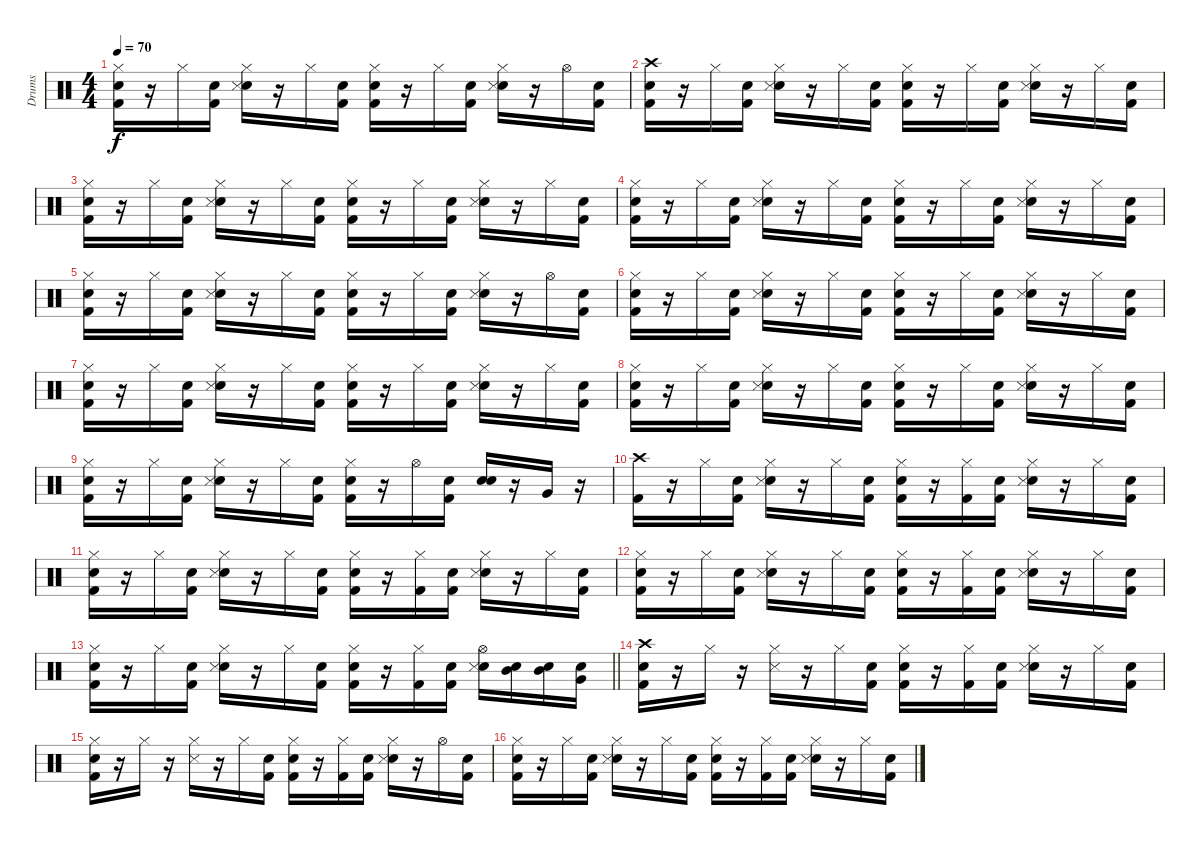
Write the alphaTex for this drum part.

\track ("Drums" "Drums") {instrument percussion}
\staff {score}
\articulation defaults
\ts (4 4)
\tempo 70
\clef neutral
\ks c
("Snare (hit)" "Kick (hit) 2" "Hi-Hat (closed)").16{dy f} r.16 "Hi-Hat (closed)".16 ("Snare (hit)" "Kick (hit) 2").16 ("Snare (hit)" "Snare (side stick) 3" "Hi-Hat (closed)").16 r.16 "Hi-Hat (closed)".16 ("Snare (hit)" "Kick (hit) 2").16 ("Snare (hit)" "Kick (hit) 2" "Hi-Hat (closed)").16 r.16 "Hi-Hat (closed)".16 ("Snare (hit)" "Kick (hit) 2").16 ("Snare (hit)" "Snare (side stick) 3" "Hi-Hat (closed)").16 r.16 "Hi-Hat (open)".16 ("Snare (hit)" "Kick (hit) 2").16 |
("Snare (hit)" "Kick (hit) 2" "Crash high (hit)").16 r.16 "Hi-Hat (closed)".16 ("Snare (hit)" "Kick (hit) 2").16 ("Snare (hit)" "Snare (side stick) 3" "Hi-Hat (closed)").16 r.16 "Hi-Hat (closed)".16 ("Snare (hit)" "Kick (hit) 2").16 ("Snare (hit)" "Kick (hit) 2" "Hi-Hat (closed)").16 r.16 "Hi-Hat (closed)".16 ("Snare (hit)" "Kick (hit) 2").16 ("Snare (hit)" "Snare (side stick) 3" "Hi-Hat (closed)").16 r.16 "Hi-Hat (closed)".16 ("Snare (hit)" "Kick (hit) 2").16 |
("Snare (hit)" "Kick (hit) 2" "Hi-Hat (closed)").16 r.16 "Hi-Hat (closed)".16 ("Snare (hit)" "Kick (hit) 2").16 ("Snare (hit)" "Snare (side stick) 3" "Hi-Hat (closed)").16 r.16 "Hi-Hat (closed)".16 ("Snare (hit)" "Kick (hit) 2").16 ("Snare (hit)" "Kick (hit) 2" "Hi-Hat (closed)").16 r.16 "Hi-Hat (closed)".16 ("Snare (hit)" "Kick (hit) 2").16 ("Snare (hit)" "Snare (side stick) 3" "Hi-Hat (closed)").16 r.16 "Hi-Hat (closed)".16 ("Snare (hit)" "Kick (hit) 2").16 |
("Snare (hit)" "Kick (hit) 2" "Hi-Hat (closed)").16 r.16 "Hi-Hat (closed)".16 ("Snare (hit)" "Kick (hit) 2").16 ("Snare (hit)" "Snare (side stick) 3" "Hi-Hat (closed)").16 r.16 "Hi-Hat (closed)".16 ("Snare (hit)" "Kick (hit) 2").16 ("Snare (hit)" "Kick (hit) 2" "Hi-Hat (closed)").16 r.16 "Hi-Hat (closed)".16 ("Snare (hit)" "Kick (hit) 2").16 ("Snare (hit)" "Snare (side stick) 3" "Hi-Hat (closed)").16 r.16 "Hi-Hat (closed)".16 ("Snare (hit)" "Kick (hit) 2").16 |
("Snare (hit)" "Kick (hit) 2" "Hi-Hat (closed)").16 r.16 "Hi-Hat (closed)".16 ("Snare (hit)" "Kick (hit) 2").16 ("Snare (hit)" "Snare (side stick) 3" "Hi-Hat (closed)").16 r.16 "Hi-Hat (closed)".16 ("Snare (hit)" "Kick (hit) 2").16 ("Snare (hit)" "Kick (hit) 2" "Hi-Hat (closed)").16 r.16 "Hi-Hat (closed)".16 ("Snare (hit)" "Kick (hit) 2").16 ("Snare (hit)" "Snare (side stick) 3" "Hi-Hat (closed)").16 r.16 "Hi-Hat (open)".16 ("Snare (hit)" "Kick (hit) 2").16 |
("Snare (hit)" "Kick (hit) 2" "Hi-Hat (closed)").16 r.16 "Hi-Hat (closed)".16 ("Snare (hit)" "Kick (hit) 2").16 ("Snare (hit)" "Snare (side stick) 3" "Hi-Hat (closed)").16 r.16 "Hi-Hat (closed)".16 ("Snare (hit)" "Kick (hit) 2").16 ("Snare (hit)" "Kick (hit) 2" "Hi-Hat (closed)").16 r.16 "Hi-Hat (closed)".16 ("Snare (hit)" "Kick (hit) 2").16 ("Snare (hit)" "Snare (side stick) 3" "Hi-Hat (closed)").16 r.16 "Hi-Hat (closed)".16 ("Snare (hit)" "Kick (hit) 2").16 |
("Snare (hit)" "Kick (hit) 2" "Hi-Hat (closed)").16 r.16 "Hi-Hat (closed)".16 ("Snare (hit)" "Kick (hit) 2").16 ("Snare (hit)" "Snare (side stick) 3" "Hi-Hat (closed)").16 r.16 "Hi-Hat (closed)".16 ("Snare (hit)" "Kick (hit) 2").16 ("Snare (hit)" "Kick (hit) 2" "Hi-Hat (closed)").16 r.16 "Hi-Hat (closed)".16 ("Snare (hit)" "Kick (hit) 2").16 ("Snare (hit)" "Snare (side stick) 3" "Hi-Hat (closed)").16 r.16 "Hi-Hat (closed)".16 ("Snare (hit)" "Kick (hit) 2").16 |
("Snare (hit)" "Kick (hit) 2" "Hi-Hat (closed)").16 r.16 "Hi-Hat (closed)".16 ("Snare (hit)" "Kick (hit) 2").16 ("Snare (hit)" "Snare (side stick) 3" "Hi-Hat (closed)").16 r.16 "Hi-Hat (closed)".16 ("Snare (hit)" "Kick (hit) 2").16 ("Snare (hit)" "Kick (hit) 2" "Hi-Hat (closed)").16 r.16 "Hi-Hat (closed)".16 ("Snare (hit)" "Kick (hit) 2").16 ("Snare (hit)" "Snare (side stick) 3" "Hi-Hat (closed)").16 r.16 "Hi-Hat (closed)".16 ("Snare (hit)" "Kick (hit) 2").16 |
("Snare (hit)" "Kick (hit) 2" "Hi-Hat (closed)").16 r.16 "Hi-Hat (closed)".16 ("Snare (hit)" "Kick (hit) 2").16 ("Snare (hit)" "Snare (side stick) 3" "Hi-Hat (closed)").16 r.16 "Hi-Hat (closed)".16 ("Snare (hit)" "Kick (hit) 2").16 ("Snare (hit)" "Kick (hit) 2" "Hi-Hat (closed)").16 r.16 "Hi-Hat (open)".16 ("Snare (hit)" "Kick (hit) 2").16 ("Snare (hit)" "Snare (hit) 2").16 r.16 "Very Low Tom (hit)".16 r.16 |
("Kick (hit) 2" "Crash high (hit)").16 r.16 "Hi-Hat (closed)".16 ("Snare (hit)" "Kick (hit) 2").16 ("Snare (hit)" "Snare (side stick) 3" "Hi-Hat (closed)").16 r.16 "Hi-Hat (closed)".16 ("Snare (hit)" "Kick (hit) 2").16 ("Snare (hit)" "Kick (hit) 2" "Hi-Hat (closed)").16 r.16 ("Kick (hit) 2" "Hi-Hat (closed)").16 ("Snare (hit)" "Kick (hit) 2").16 ("Snare (hit)" "Snare (side stick) 3" "Hi-Hat (closed)").16 r.16 "Hi-Hat (closed)".16 ("Snare (hit)" "Kick (hit) 2").16 |
("Snare (hit)" "Kick (hit) 2" "Hi-Hat (closed)").16 r.16 "Hi-Hat (closed)".16 ("Snare (hit)" "Kick (hit) 2").16 ("Snare (hit)" "Snare (side stick) 3" "Hi-Hat (closed)").16 r.16 "Hi-Hat (closed)".16 ("Snare (hit)" "Kick (hit) 2").16 ("Snare (hit)" "Kick (hit) 2" "Hi-Hat (closed)").16 r.16 ("Kick (hit) 2" "Hi-Hat (closed)").16 ("Snare (hit)" "Kick (hit) 2").16 ("Snare (hit)" "Snare (side stick) 3" "Hi-Hat (closed)").16 r.16 "Hi-Hat (closed)".16 ("Snare (hit)" "Kick (hit) 2").16 |
("Snare (hit)" "Kick (hit) 2" "Hi-Hat (closed)").16 r.16 "Hi-Hat (closed)".16 ("Snare (hit)" "Kick (hit) 2").16 ("Snare (hit)" "Snare (side stick) 3" "Hi-Hat (closed)").16 r.16 "Hi-Hat (closed)".16 ("Snare (hit)" "Kick (hit) 2").16 ("Snare (hit)" "Kick (hit) 2" "Hi-Hat (closed)").16 r.16 ("Kick (hit) 2" "Hi-Hat (closed)").16 ("Snare (hit)" "Kick (hit) 2").16 ("Snare (hit)" "Snare (side stick) 3" "Hi-Hat (closed)").16 r.16 "Hi-Hat (closed)".16 ("Snare (hit)" "Kick (hit) 2").16 |
\barLineRight lightlight
("Snare (hit)" "Kick (hit) 2" "Hi-Hat (closed)").16 r.16 "Hi-Hat (closed)".16 ("Snare (hit)" "Kick (hit) 2").16 ("Snare (hit)" "Snare (side stick) 3" "Hi-Hat (closed)").16 r.16 "Hi-Hat (closed)".16 ("Snare (hit)" "Kick (hit) 2").16 ("Snare (hit)" "Kick (hit) 2" "Hi-Hat (closed)").16 r.16 ("Kick (hit) 2" "Hi-Hat (closed)").16 ("Snare (hit)" "Kick (hit) 2").16 ("Snare (hit)" "Snare (side stick) 3" "Hi-Hat (open)").16 ("Snare (hit)" "Mid Tom (hit)").16 ("Snare (hit)" "Mid Tom (hit)").16 ("Snare (hit)" "Very Low Tom (hit)").16 |
("Snare (hit)" "Kick (hit) 2" "Crash high (hit)").16 r.16 "Hi-Hat (closed)".16 r.16 ("Snare (side stick) 3" "Hi-Hat (closed)").16 r.16 "Hi-Hat (closed)".16 ("Snare (hit)" "Kick (hit) 2").16 ("Snare (hit)" "Kick (hit) 2" "Hi-Hat (closed)").16 r.16 ("Kick (hit) 2" "Hi-Hat (closed)").16 ("Snare (hit)" "Kick (hit) 2").16 ("Snare (hit)" "Snare (side stick) 3" "Hi-Hat (closed)").16 r.16 "Hi-Hat (closed)".16 ("Snare (hit)" "Kick (hit) 2").16 |
("Snare (hit)" "Kick (hit) 2" "Hi-Hat (closed)").16 r.16 "Hi-Hat (closed)".16 r.16 ("Snare (side stick) 3" "Hi-Hat (closed)").16 r.16 "Hi-Hat (closed)".16 ("Snare (hit)" "Kick (hit) 2").16 ("Snare (hit)" "Kick (hit) 2" "Hi-Hat (closed)").16 r.16 ("Kick (hit) 2" "Hi-Hat (closed)").16 ("Snare (hit)" "Kick (hit) 2").16 ("Snare (hit)" "Snare (side stick) 3" "Hi-Hat (closed)").16 r.16 "Hi-Hat (open)".16 ("Snare (hit)" "Kick (hit) 2").16 |
("Snare (hit)" "Kick (hit) 2" "Hi-Hat (closed)").16 r.16 "Hi-Hat (closed)".16 ("Snare (hit)" "Kick (hit) 2").16 ("Snare (hit)" "Snare (side stick) 3" "Hi-Hat (closed)").16 r.16 "Hi-Hat (closed)".16 ("Snare (hit)" "Kick (hit) 2").16 ("Snare (hit)" "Kick (hit) 2" "Hi-Hat (closed)").16 r.16 ("Kick (hit) 2" "Hi-Hat (closed)").16 ("Snare (hit)" "Kick (hit) 2").16 ("Snare (hit)" "Snare (side stick) 3" "Hi-Hat (closed)").16 r.16 "Hi-Hat (closed)".16 ("Snare (hit)" "Kick (hit) 2").16
